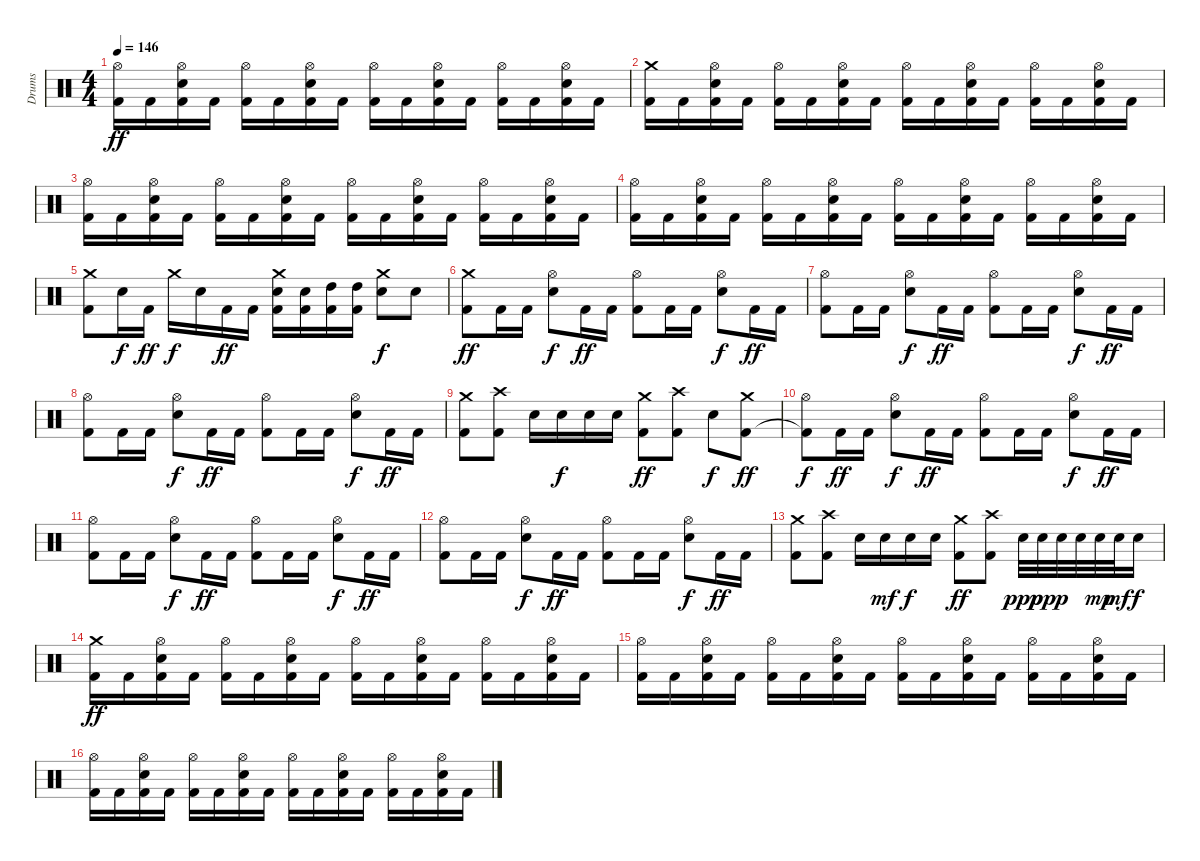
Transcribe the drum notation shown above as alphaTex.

\track ("Drums" "Drums") {instrument percussion}
\staff {score}
\articulation defaults
\ts (4 4)
\tempo 146
\clef neutral
\ks c
("Kick (hit) 2" "Hi-Hat (open)").16{dy ff} "Kick (hit) 2".16 ("Kick (hit) 2" "Electric Snare (hit)" "Hi-Hat (open)").16 "Kick (hit) 2".16 ("Kick (hit) 2" "Hi-Hat (open)").16 "Kick (hit) 2".16 ("Kick (hit) 2" "Electric Snare (hit)" "Hi-Hat (open)").16 "Kick (hit) 2".16 ("Kick (hit) 2" "Hi-Hat (open)").16 "Kick (hit) 2".16 ("Kick (hit) 2" "Electric Snare (hit)" "Hi-Hat (open)").16 "Kick (hit) 2".16 ("Kick (hit) 2" "Hi-Hat (open)").16 "Kick (hit) 2".16 ("Kick (hit) 2" "Electric Snare (hit)" "Hi-Hat (open)").16 "Kick (hit) 2".16 |
("Kick (hit) 2" "Crash medium (hit)").16 "Kick (hit) 2".16 ("Kick (hit) 2" "Electric Snare (hit)" "Hi-Hat (open)").16 "Kick (hit) 2".16 ("Kick (hit) 2" "Hi-Hat (open)").16 "Kick (hit) 2".16 ("Kick (hit) 2" "Electric Snare (hit)" "Hi-Hat (open)").16 "Kick (hit) 2".16 ("Kick (hit) 2" "Hi-Hat (open)").16 "Kick (hit) 2".16 ("Kick (hit) 2" "Electric Snare (hit)" "Hi-Hat (open)").16 "Kick (hit) 2".16 ("Kick (hit) 2" "Hi-Hat (open)").16 "Kick (hit) 2".16 ("Kick (hit) 2" "Electric Snare (hit)" "Hi-Hat (open)").16 "Kick (hit) 2".16 |
("Kick (hit) 2" "Hi-Hat (open)").16 "Kick (hit) 2".16 ("Kick (hit) 2" "Electric Snare (hit)" "Hi-Hat (open)").16 "Kick (hit) 2".16 ("Kick (hit) 2" "Hi-Hat (open)").16 "Kick (hit) 2".16 ("Kick (hit) 2" "Electric Snare (hit)" "Hi-Hat (open)").16 "Kick (hit) 2".16 ("Kick (hit) 2" "Hi-Hat (open)").16 "Kick (hit) 2".16 ("Kick (hit) 2" "Electric Snare (hit)" "Hi-Hat (open)").16 "Kick (hit) 2".16 ("Kick (hit) 2" "Hi-Hat (open)").16 "Kick (hit) 2".16 ("Kick (hit) 2" "Electric Snare (hit)" "Hi-Hat (open)").16 "Kick (hit) 2".16 |
("Kick (hit) 2" "Hi-Hat (open)").16 "Kick (hit) 2".16 ("Kick (hit) 2" "Electric Snare (hit)" "Hi-Hat (open)").16 "Kick (hit) 2".16 ("Kick (hit) 2" "Hi-Hat (open)").16 "Kick (hit) 2".16 ("Kick (hit) 2" "Electric Snare (hit)" "Hi-Hat (open)").16 "Kick (hit) 2".16 ("Kick (hit) 2" "Hi-Hat (open)").16 "Kick (hit) 2".16 ("Kick (hit) 2" "Electric Snare (hit)" "Hi-Hat (open)").16 "Kick (hit) 2".16 ("Kick (hit) 2" "Hi-Hat (open)").16 "Kick (hit) 2".16 ("Kick (hit) 2" "Electric Snare (hit)" "Hi-Hat (open)").16 "Kick (hit) 2".16 |
("Kick (hit) 2" "Crash medium (hit)").8 "Electric Snare (hit)".16{dy f} "Kick (hit) 2".16{dy ff} "Crash medium (hit)".16{dy f} "Electric Snare (hit)".16 "Kick (hit) 2".16{dy ff} "Kick (hit) 2".16 ("Kick (hit) 2" "Electric Snare (hit)" "Crash medium (hit)").16 ("Kick (hit) 2" "Electric Snare (hit)").16 ("Kick (hit) 2" "High Tom (hit)").16 ("Kick (hit) 2" "High Tom (hit)").16 ("Electric Snare (hit)" "Crash medium (hit)").8{dy f} "Electric Snare (hit)".8 |
("Kick (hit) 2" "Crash medium (hit)").8{dy ff} "Kick (hit) 2".16 "Kick (hit) 2".16 ("Electric Snare (hit)" "Hi-Hat (open)").8{dy f} "Kick (hit) 2".16{dy ff} "Kick (hit) 2".16 ("Kick (hit) 2" "Hi-Hat (open)").8 "Kick (hit) 2".16 "Kick (hit) 2".16 ("Electric Snare (hit)" "Hi-Hat (open)").8{dy f} "Kick (hit) 2".16{dy ff} "Kick (hit) 2".16 |
("Kick (hit) 2" "Hi-Hat (open)").8 "Kick (hit) 2".16 "Kick (hit) 2".16 ("Electric Snare (hit)" "Hi-Hat (open)").8{dy f} "Kick (hit) 2".16{dy ff} "Kick (hit) 2".16 ("Kick (hit) 2" "Hi-Hat (open)").8 "Kick (hit) 2".16 "Kick (hit) 2".16 ("Electric Snare (hit)" "Hi-Hat (open)").8{dy f} "Kick (hit) 2".16{dy ff} "Kick (hit) 2".16 |
("Kick (hit) 2" "Hi-Hat (open)").8 "Kick (hit) 2".16 "Kick (hit) 2".16 ("Electric Snare (hit)" "Hi-Hat (open)").8{dy f} "Kick (hit) 2".16{dy ff} "Kick (hit) 2".16 ("Kick (hit) 2" "Hi-Hat (open)").8 "Kick (hit) 2".16 "Kick (hit) 2".16 ("Electric Snare (hit)" "Hi-Hat (open)").8{dy f} "Kick (hit) 2".16{dy ff} "Kick (hit) 2".16 |
("Kick (hit) 2" "Crash medium (hit)").8 ("Kick (hit) 2" "Crash high (hit)").8 "Electric Snare (hit)".16 "Electric Snare (hit)".16{dy f} "Electric Snare (hit)".16 "Electric Snare (hit)".16 ("Kick (hit) 2" "Crash medium (hit)").8{dy ff} ("Kick (hit) 2" "Crash high (hit)").8 "Electric Snare (hit)".8{dy f} ("Kick (hit) 2" "Crash medium (hit)").8{dy ff} |
("Kick (hit) 2"{t} "Hi-Hat (open)").8{dy f} "Kick (hit) 2".16{dy ff} "Kick (hit) 2".16 ("Electric Snare (hit)" "Hi-Hat (open)").8{dy f} "Kick (hit) 2".16{dy ff} "Kick (hit) 2".16 ("Kick (hit) 2" "Hi-Hat (open)").8 "Kick (hit) 2".16 "Kick (hit) 2".16 ("Electric Snare (hit)" "Hi-Hat (open)").8{dy f} "Kick (hit) 2".16{dy ff} "Kick (hit) 2".16 |
("Kick (hit) 2" "Hi-Hat (open)").8 "Kick (hit) 2".16 "Kick (hit) 2".16 ("Electric Snare (hit)" "Hi-Hat (open)").8{dy f} "Kick (hit) 2".16{dy ff} "Kick (hit) 2".16 ("Kick (hit) 2" "Hi-Hat (open)").8 "Kick (hit) 2".16 "Kick (hit) 2".16 ("Electric Snare (hit)" "Hi-Hat (open)").8{dy f} "Kick (hit) 2".16{dy ff} "Kick (hit) 2".16 |
("Kick (hit) 2" "Hi-Hat (open)").8 "Kick (hit) 2".16 "Kick (hit) 2".16 ("Electric Snare (hit)" "Hi-Hat (open)").8{dy f} "Kick (hit) 2".16{dy ff} "Kick (hit) 2".16 ("Kick (hit) 2" "Hi-Hat (open)").8 "Kick (hit) 2".16 "Kick (hit) 2".16 ("Electric Snare (hit)" "Hi-Hat (open)").8{dy f} "Kick (hit) 2".16{dy ff} "Kick (hit) 2".16 |
("Kick (hit) 2" "Crash medium (hit)").8 ("Kick (hit) 2" "Crash high (hit)").8 "Electric Snare (hit)".16 "Electric Snare (hit)".16{dy mf} "Electric Snare (hit)".16{dy f} "Electric Snare (hit)".16 ("Kick (hit) 2" "Crash medium (hit)").8{dy ff} ("Kick (hit) 2" "Crash high (hit)").8 "Electric Snare (hit)".32{dy ppp} "Electric Snare (hit)".32{dy pp} "Electric Snare (hit)".32{dy p} "Electric Snare (hit)".32 "Electric Snare (hit)".32{dy mp} "Electric Snare (hit)".32{dy mf} "Electric Snare (hit)".16{dy f} |
("Kick (hit) 2" "Crash medium (hit)").16{dy ff} "Kick (hit) 2".16 ("Kick (hit) 2" "Electric Snare (hit)" "Hi-Hat (open)").16 "Kick (hit) 2".16 ("Kick (hit) 2" "Hi-Hat (open)").16 "Kick (hit) 2".16 ("Kick (hit) 2" "Electric Snare (hit)" "Hi-Hat (open)").16 "Kick (hit) 2".16 ("Kick (hit) 2" "Hi-Hat (open)").16 "Kick (hit) 2".16 ("Kick (hit) 2" "Electric Snare (hit)" "Hi-Hat (open)").16 "Kick (hit) 2".16 ("Kick (hit) 2" "Hi-Hat (open)").16 "Kick (hit) 2".16 ("Kick (hit) 2" "Electric Snare (hit)" "Hi-Hat (open)").16 "Kick (hit) 2".16 |
("Kick (hit) 2" "Hi-Hat (open)").16 "Kick (hit) 2".16 ("Kick (hit) 2" "Electric Snare (hit)" "Hi-Hat (open)").16 "Kick (hit) 2".16 ("Kick (hit) 2" "Hi-Hat (open)").16 "Kick (hit) 2".16 ("Kick (hit) 2" "Electric Snare (hit)" "Hi-Hat (open)").16 "Kick (hit) 2".16 ("Kick (hit) 2" "Hi-Hat (open)").16 "Kick (hit) 2".16 ("Kick (hit) 2" "Electric Snare (hit)" "Hi-Hat (open)").16 "Kick (hit) 2".16 ("Kick (hit) 2" "Hi-Hat (open)").16 "Kick (hit) 2".16 ("Kick (hit) 2" "Electric Snare (hit)" "Hi-Hat (open)").16 "Kick (hit) 2".16 |
("Kick (hit) 2" "Hi-Hat (open)").16 "Kick (hit) 2".16 ("Kick (hit) 2" "Electric Snare (hit)" "Hi-Hat (open)").16 "Kick (hit) 2".16 ("Kick (hit) 2" "Hi-Hat (open)").16 "Kick (hit) 2".16 ("Kick (hit) 2" "Electric Snare (hit)" "Hi-Hat (open)").16 "Kick (hit) 2".16 ("Kick (hit) 2" "Hi-Hat (open)").16 "Kick (hit) 2".16 ("Kick (hit) 2" "Electric Snare (hit)" "Hi-Hat (open)").16 "Kick (hit) 2".16 ("Kick (hit) 2" "Hi-Hat (open)").16 "Kick (hit) 2".16 ("Kick (hit) 2" "Electric Snare (hit)" "Hi-Hat (open)").16 "Kick (hit) 2".16
